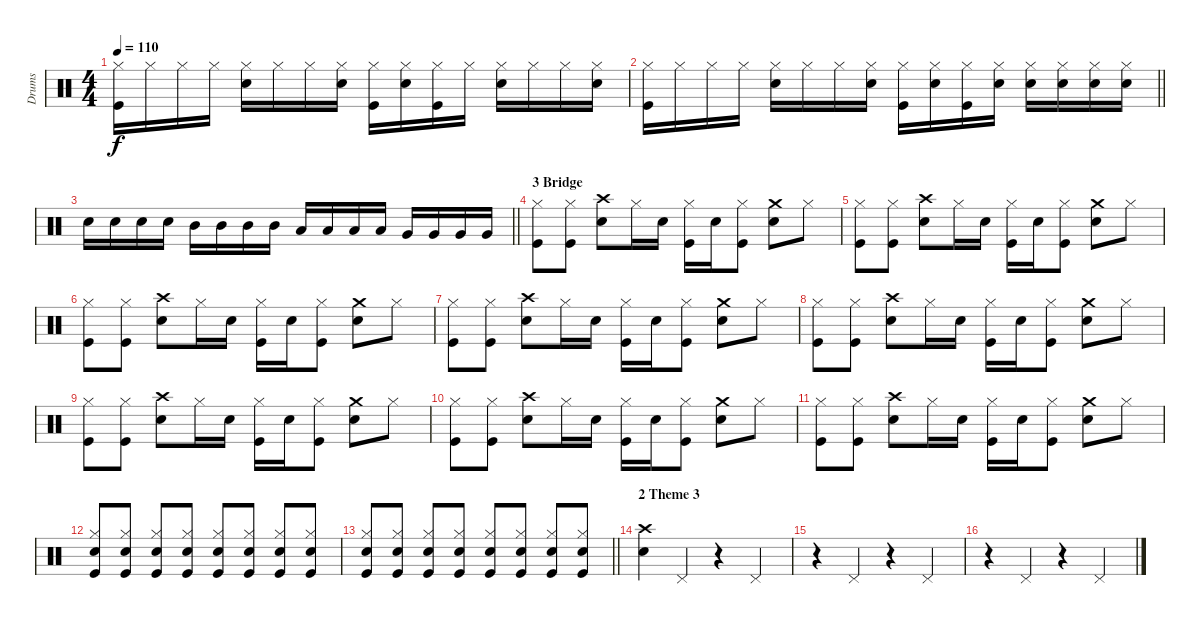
\track ("Drums" "Drums") {instrument percussion}
\staff {score}
\articulation defaults
\ts (4 4)
\tempo 110
\clef neutral
\ks c
("Kick (hit)" "Hi-Hat (closed)").16{dy f} "Hi-Hat (closed)".16 "Hi-Hat (closed)".16 "Hi-Hat (closed)".16 ("Hi-Hat (closed)" "Electric Snare (hit)").16 "Hi-Hat (closed)".16 "Hi-Hat (closed)".16 ("Hi-Hat (closed)" "Electric Snare (hit)").16 ("Kick (hit)" "Hi-Hat (closed)").16 ("Hi-Hat (closed)" "Electric Snare (hit)").16 ("Kick (hit)" "Hi-Hat (closed)").16 "Hi-Hat (closed)".16 ("Hi-Hat (closed)" "Electric Snare (hit)").16 "Hi-Hat (closed)".16 "Hi-Hat (closed)".16 ("Hi-Hat (closed)" "Electric Snare (hit)").16 |
\barLineRight lightlight
("Kick (hit)" "Hi-Hat (closed)").16 "Hi-Hat (closed)".16 "Hi-Hat (closed)".16 "Hi-Hat (closed)".16 ("Hi-Hat (closed)" "Electric Snare (hit)").16 "Hi-Hat (closed)".16 "Hi-Hat (closed)".16 ("Hi-Hat (closed)" "Electric Snare (hit)").16 ("Kick (hit)" "Hi-Hat (closed)").16 ("Hi-Hat (closed)" "Electric Snare (hit)").16 ("Kick (hit)" "Hi-Hat (closed)").16 ("Hi-Hat (closed)" "Electric Snare (hit)").16 ("Hi-Hat (closed)" "Electric Snare (hit)").16 ("Hi-Hat (closed)" "Electric Snare (hit)").16 ("Hi-Hat (closed)" "Electric Snare (hit)").16 ("Hi-Hat (closed)" "Electric Snare (hit)").16 |
\barLineRight lightlight "Electric Snare (hit)".16 "Electric Snare (hit)".16 "Electric Snare (hit)".16 "Electric Snare (hit)".16 "Mid Tom (hit)".16 "Mid Tom (hit)".16 "Mid Tom (hit)".16 "Mid Tom (hit)".16 "Low Tom (hit)".16 "Low Tom (hit)".16 "Low Tom (hit)".16 "Low Tom (hit)".16 "Very Low Tom (hit)".16 "Very Low Tom (hit)".16 "Very Low Tom (hit)".16 "Very Low Tom (hit)".16
|
\section ("" "3 Bridge")
("Kick (hit)" "Hi-Hat (closed)").8 ("Kick (hit)" "Hi-Hat (closed)").8 ("Electric Snare (hit)" "Crash high (hit)").8 "Hi-Hat (closed)".16 "Electric Snare (hit)".16 ("Kick (hit)" "Hi-Hat (closed)").16 "Electric Snare (hit)".16 ("Kick (hit)" "Hi-Hat (closed)").8 ("Electric Snare (hit)" "Crash medium (hit)").8 "Hi-Hat (closed)".8 |
("Kick (hit)" "Hi-Hat (closed)").8 ("Kick (hit)" "Hi-Hat (closed)").8 ("Electric Snare (hit)" "Crash high (hit)").8 "Hi-Hat (closed)".16 "Electric Snare (hit)".16 ("Kick (hit)" "Hi-Hat (closed)").16 "Electric Snare (hit)".16 ("Kick (hit)" "Hi-Hat (closed)").8 ("Electric Snare (hit)" "Crash medium (hit)").8 "Hi-Hat (closed)".8 |
("Kick (hit)" "Hi-Hat (closed)").8 ("Kick (hit)" "Hi-Hat (closed)").8 ("Electric Snare (hit)" "Crash high (hit)").8 "Hi-Hat (closed)".16 "Electric Snare (hit)".16 ("Kick (hit)" "Hi-Hat (closed)").16 "Electric Snare (hit)".16 ("Kick (hit)" "Hi-Hat (closed)").8 ("Electric Snare (hit)" "Crash medium (hit)").8 "Hi-Hat (closed)".8 |
("Kick (hit)" "Hi-Hat (closed)").8 ("Kick (hit)" "Hi-Hat (closed)").8 ("Electric Snare (hit)" "Crash high (hit)").8 "Hi-Hat (closed)".16 "Electric Snare (hit)".16 ("Kick (hit)" "Hi-Hat (closed)").16 "Electric Snare (hit)".16 ("Kick (hit)" "Hi-Hat (closed)").8 ("Electric Snare (hit)" "Crash medium (hit)").8 "Hi-Hat (closed)".8 |
("Kick (hit)" "Hi-Hat (closed)").8 ("Kick (hit)" "Hi-Hat (closed)").8 ("Electric Snare (hit)" "Crash high (hit)").8 "Hi-Hat (closed)".16 "Electric Snare (hit)".16 ("Kick (hit)" "Hi-Hat (closed)").16 "Electric Snare (hit)".16 ("Kick (hit)" "Hi-Hat (closed)").8 ("Electric Snare (hit)" "Crash medium (hit)").8 "Hi-Hat (closed)".8 |
("Kick (hit)" "Hi-Hat (closed)").8 ("Kick (hit)" "Hi-Hat (closed)").8 ("Electric Snare (hit)" "Crash high (hit)").8 "Hi-Hat (closed)".16 "Electric Snare (hit)".16 ("Kick (hit)" "Hi-Hat (closed)").16 "Electric Snare (hit)".16 ("Kick (hit)" "Hi-Hat (closed)").8 ("Electric Snare (hit)" "Crash medium (hit)").8 "Hi-Hat (closed)".8 |
("Kick (hit)" "Hi-Hat (closed)").8 ("Kick (hit)" "Hi-Hat (closed)").8 ("Electric Snare (hit)" "Crash high (hit)").8 "Hi-Hat (closed)".16 "Electric Snare (hit)".16 ("Kick (hit)" "Hi-Hat (closed)").16 "Electric Snare (hit)".16 ("Kick (hit)" "Hi-Hat (closed)").8 ("Electric Snare (hit)" "Crash medium (hit)").8 "Hi-Hat (closed)".8 |
("Kick (hit)" "Hi-Hat (closed)").8 ("Kick (hit)" "Hi-Hat (closed)").8 ("Electric Snare (hit)" "Crash high (hit)").8 "Hi-Hat (closed)".16 "Electric Snare (hit)".16 ("Kick (hit)" "Hi-Hat (closed)").16 "Electric Snare (hit)".16 ("Kick (hit)" "Hi-Hat (closed)").8 ("Electric Snare (hit)" "Crash medium (hit)").8 "Hi-Hat (closed)".8 |
("Kick (hit)" "Hi-Hat (closed)" "Electric Snare (hit)").8 ("Kick (hit)" "Hi-Hat (closed)" "Electric Snare (hit)").8 ("Kick (hit)" "Hi-Hat (closed)" "Electric Snare (hit)").8 ("Kick (hit)" "Hi-Hat (closed)" "Electric Snare (hit)").8 ("Kick (hit)" "Hi-Hat (closed)" "Electric Snare (hit)").8 ("Kick (hit)" "Hi-Hat (closed)" "Electric Snare (hit)").8 ("Kick (hit)" "Hi-Hat (closed)" "Electric Snare (hit)").8 ("Kick (hit)" "Hi-Hat (closed)" "Electric Snare (hit)").8 |
\barLineRight lightlight
("Kick (hit)" "Hi-Hat (closed)" "Electric Snare (hit)").8 ("Kick (hit)" "Hi-Hat (closed)" "Electric Snare (hit)").8 ("Kick (hit)" "Hi-Hat (closed)" "Electric Snare (hit)").8 ("Kick (hit)" "Hi-Hat (closed)" "Electric Snare (hit)").8 ("Kick (hit)" "Hi-Hat (closed)" "Electric Snare (hit)").8 ("Kick (hit)" "Hi-Hat (closed)" "Electric Snare (hit)").8 ("Kick (hit)" "Hi-Hat (closed)" "Electric Snare (hit)").8 ("Kick (hit)" "Hi-Hat (closed)" "Electric Snare (hit)").8 |
\section ("" "2 Theme 3")
("Electric Snare (hit)" "Crash high (hit)").4 "Pedal Hi-Hat (hit)".4 r.4 "Pedal Hi-Hat (hit)".4 |
r.4 "Pedal Hi-Hat (hit)".4 r.4 "Pedal Hi-Hat (hit)".4 |
r.4 "Pedal Hi-Hat (hit)".4 r.4 "Pedal Hi-Hat (hit)".4
